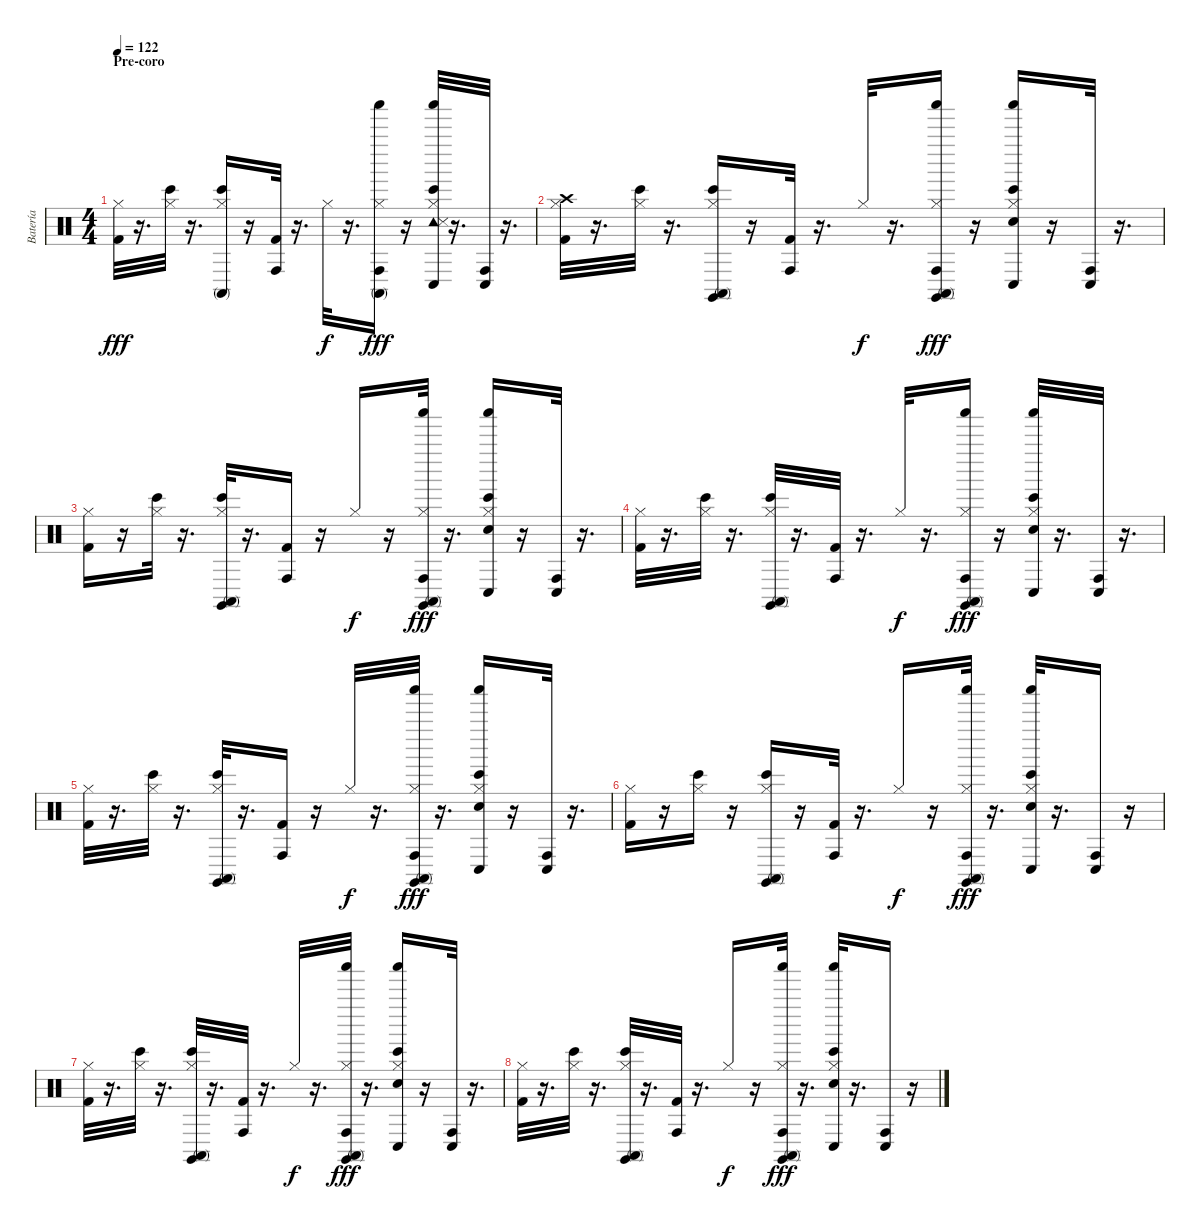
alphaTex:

\track ("Batería" "Batería") {instrument percussion}
\staff {score}
\articulation defaults
\ts (4 4)
\section ("" "Pre-coro")
\tempo 122
\clef neutral
\ks c
("Hi-Hat (closed)" "Kick (hit) 2").32{dy fff} r.16{d} ("Bongo High (hit)" "Hi-Hat (closed)").32 r.16{d} ("Bongo High (hit)" "Conga high (mute)" "Hi-Hat (closed)").16 r.16 ("Conga high (hit)" "Kick (hit) 2").32 r.16{d} "Hi-Hat (closed)".32{dy f} r.16{d} ("Conga high (hit)" "Conga high (mute)" "Shaker (hit)" "Hi-Hat (closed)").16{dy fff} r.16 ("Tambourine (hit)" "Snare (side stick) 3" "Bongo High (hit)" "Conga low (hit)" "Shaker (hit)" "Hi-Hat (closed)").32 r.16{d} ("Conga high (hit)" "Conga low (hit)").32 r.16{d} |
("Hi-Hat (closed)" "Kick (hit) 2" "Crash high (hit)").32 r.16{d} ("Bongo High (hit)" "Hi-Hat (closed)").32 r.16{d} ("Claves (hit)" "Bongo High (hit)" "Conga high (mute)" "Hi-Hat (closed)").16 r.16 ("Conga high (hit)" "Kick (hit) 2").32 r.16{d} "Hi-Hat (closed)".32{dy f} r.16{d} ("Claves (hit)" "Conga high (hit)" "Conga high (mute)" "Shaker (hit)" "Hi-Hat (closed)").16{dy fff} r.16 ("Snare (hit) 2" "Bongo High (hit)" "Conga low (hit)" "Shaker (hit)" "Hi-Hat (closed)").16 r.16 ("Conga high (hit)" "Conga low (hit)").32 r.16{d} |
("Hi-Hat (closed)" "Kick (hit) 2").16 r.16 ("Bongo High (hit)" "Hi-Hat (closed)").32 r.16{d} ("Claves (hit)" "Bongo High (hit)" "Conga high (mute)" "Hi-Hat (closed)").32 r.16{d} ("Conga high (hit)" "Kick (hit) 2").16 r.16 "Hi-Hat (closed)".16{dy f} r.16 ("Claves (hit)" "Conga high (hit)" "Conga high (mute)" "Shaker (hit)" "Hi-Hat (closed)").32{dy fff} r.16{d} ("Snare (hit) 2" "Bongo High (hit)" "Conga low (hit)" "Shaker (hit)" "Hi-Hat (closed)").16 r.16 ("Conga high (hit)" "Conga low (hit)").32 r.16{d} |
("Hi-Hat (closed)" "Kick (hit) 2").32 r.16{d} ("Bongo High (hit)" "Hi-Hat (closed)").32 r.16{d} ("Claves (hit)" "Bongo High (hit)" "Conga high (mute)" "Hi-Hat (closed)").32 r.16{d} ("Conga high (hit)" "Kick (hit) 2").32 r.16{d} "Hi-Hat (closed)".32{dy f} r.16{d} ("Claves (hit)" "Conga high (hit)" "Conga high (mute)" "Shaker (hit)" "Hi-Hat (closed)").16{dy fff} r.16 ("Snare (hit) 2" "Bongo High (hit)" "Conga low (hit)" "Shaker (hit)" "Hi-Hat (closed)").32 r.16{d} ("Conga high (hit)" "Conga low (hit)").32 r.16{d} |
("Hi-Hat (closed)" "Kick (hit) 2").32 r.16{d} ("Bongo High (hit)" "Hi-Hat (closed)").32 r.16{d} ("Claves (hit)" "Bongo High (hit)" "Conga high (mute)" "Hi-Hat (closed)").32 r.16{d} ("Conga high (hit)" "Kick (hit) 2").16 r.16 "Hi-Hat (closed)".32{dy f} r.16{d} ("Claves (hit)" "Conga high (hit)" "Conga high (mute)" "Shaker (hit)" "Hi-Hat (closed)").32{dy fff} r.16{d} ("Snare (hit) 2" "Bongo High (hit)" "Conga low (hit)" "Shaker (hit)" "Hi-Hat (closed)").16 r.16 ("Conga high (hit)" "Conga low (hit)").32 r.16{d} |
("Hi-Hat (closed)" "Kick (hit) 2").16 r.16 ("Bongo High (hit)" "Hi-Hat (closed)").16 r.16 ("Claves (hit)" "Bongo High (hit)" "Conga high (mute)" "Hi-Hat (closed)").16 r.16 ("Conga high (hit)" "Kick (hit) 2").32 r.16{d} "Hi-Hat (closed)".16{dy f} r.16 ("Claves (hit)" "Conga high (hit)" "Conga high (mute)" "Shaker (hit)" "Hi-Hat (closed)").32{dy fff} r.16{d} ("Snare (hit) 2" "Bongo High (hit)" "Conga low (hit)" "Shaker (hit)" "Hi-Hat (closed)").32 r.16{d} ("Conga high (hit)" "Conga low (hit)").16 r.16 |
("Hi-Hat (closed)" "Kick (hit) 2").32 r.16{d} ("Bongo High (hit)" "Hi-Hat (closed)").32 r.16{d} ("Claves (hit)" "Bongo High (hit)" "Conga high (mute)" "Hi-Hat (closed)").32 r.16{d} ("Conga high (hit)" "Kick (hit) 2").32 r.16{d} "Hi-Hat (closed)".32{dy f} r.16{d} ("Claves (hit)" "Conga high (hit)" "Conga high (mute)" "Shaker (hit)" "Hi-Hat (closed)").32{dy fff} r.16{d} ("Snare (hit) 2" "Bongo High (hit)" "Conga low (hit)" "Shaker (hit)" "Hi-Hat (closed)").16 r.16 ("Conga high (hit)" "Conga low (hit)").32 r.16{d} |
("Hi-Hat (closed)" "Kick (hit) 2").32 r.16{d} ("Bongo High (hit)" "Hi-Hat (closed)").32 r.16{d} ("Claves (hit)" "Bongo High (hit)" "Conga high (mute)" "Hi-Hat (closed)").32 r.16{d} ("Conga high (hit)" "Kick (hit) 2").32 r.16{d} "Hi-Hat (closed)".16{dy f} r.16 ("Claves (hit)" "Conga high (hit)" "Conga high (mute)" "Shaker (hit)" "Hi-Hat (closed)").32{dy fff} r.16{d} ("Snare (hit) 2" "Bongo High (hit)" "Conga low (hit)" "Shaker (hit)" "Hi-Hat (closed)").32 r.16{d} ("Conga high (hit)" "Conga low (hit)").16 r.16
